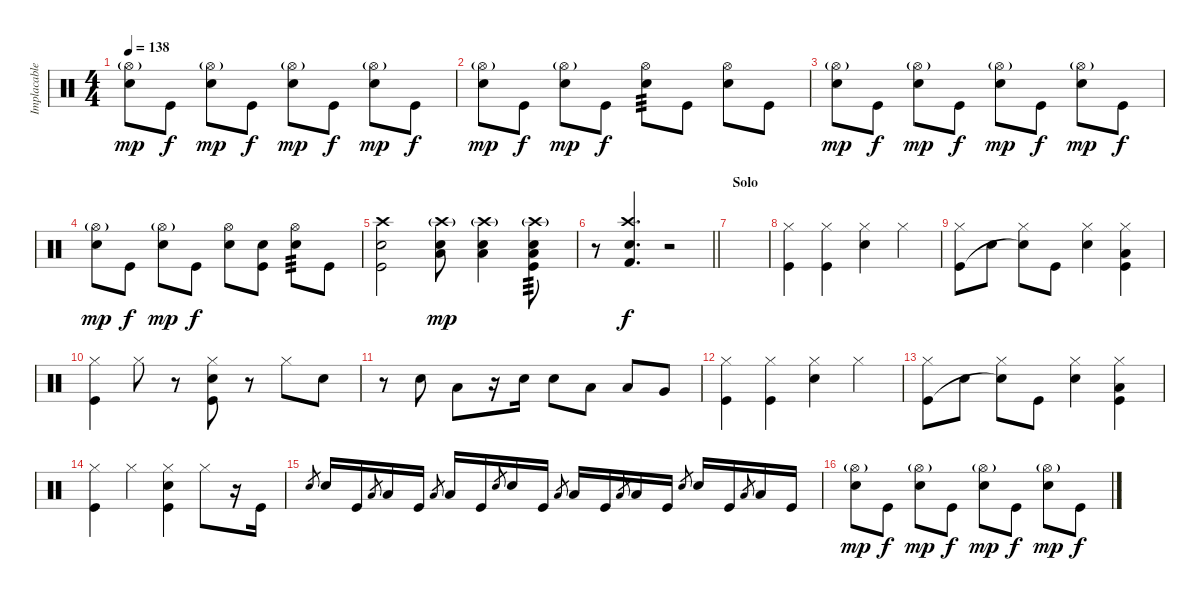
\track ("Implacable Gonzalez" "Implacable") {instrument percussion}
\staff {score}
\articulation defaults
\ts (4 4)
\tempo 138
\clef neutral
\ks c
("Hi-Hat (open)"{g} "Snare (hit) 2").8{dy mp} "Kick (hit)".8{dy f} ("Hi-Hat (open)"{g} "Snare (hit) 2").8{dy mp} "Kick (hit)".8{dy f} ("Hi-Hat (open)"{g} "Snare (hit) 2").8{dy mp} "Kick (hit)".8{dy f} ("Hi-Hat (open)"{g} "Snare (hit) 2").8{dy mp} "Kick (hit)".8{dy f} |
("Hi-Hat (open)"{g} "Snare (hit) 2").8{dy mp} "Kick (hit)".8{dy f} ("Hi-Hat (open)"{g} "Snare (hit) 2").8{dy mp} "Kick (hit)".8{dy f} ("Hi-Hat (open)" "Snare (hit) 2").8{tp 3} "Kick (hit)".8 ("Hi-Hat (open)" "Snare (hit) 2").8 "Kick (hit)".8 |
("Hi-Hat (open)"{g} "Snare (hit) 2").8{dy mp} "Kick (hit)".8{dy f} ("Hi-Hat (open)"{g} "Snare (hit) 2").8{dy mp} "Kick (hit)".8{dy f} ("Hi-Hat (open)"{g} "Snare (hit) 2").8{dy mp} "Kick (hit)".8{dy f} ("Hi-Hat (open)"{g} "Snare (hit) 2").8{dy mp} "Kick (hit)".8{dy f} |
("Hi-Hat (open)"{g} "Snare (hit) 2").8{dy mp} "Kick (hit)".8{dy f} ("Hi-Hat (open)"{g} "Snare (hit) 2").8{dy mp} "Kick (hit)".8{dy f} ("Hi-Hat (open)" "Snare (hit) 2").8 ("Snare (hit) 2" "Kick (hit)").8 ("Hi-Hat (open)" "Snare (hit) 2").8{tp 3} "Kick (hit)".8 |
("Crash high (hit)" "Snare (hit) 2" "Kick (hit)").2 ("Crash high (hit)"{g} "Snare (hit) 2" "Low Floor Tom (hit)").8{dy mp} ("Crash high (hit)"{g} "Snare (hit) 2" "Low Floor Tom (hit)").4 ("Crash high (hit)"{g} "Snare (hit) 2" "Low Tom (hit)" "Kick (hit)").8{tp 3} |
\barLineRight lightlight
r.8 ("Crash high (hit)" "Snare (hit) 2" "Kick (hit) 2").4{d dy f} r.2 |
\section ("" "Solo")
|
("Hi-Hat (closed)" "Kick (hit)").4 ("Hi-Hat (closed)" "Kick (hit)").4 ("Hi-Hat (closed)" "Snare (hit) 2").4 "Hi-Hat (closed)".4 |
("Hi-Hat (closed)" "Kick (hit)").8 "Snare (hit) 2".8 ("Hi-Hat (closed)" "Snare (hit)"{t}).8 "Kick (hit)".8 ("Hi-Hat (closed)" "Snare (hit) 2").4 ("Hi-Hat (closed)" "Low Floor Tom (hit)" "Kick (hit)").4 |
("Hi-Hat (closed)" "Kick (hit)").4 "Hi-Hat (closed)".8 r.8 ("Hi-Hat (closed)" "Snare (hit) 2" "Kick (hit)").8 r.8 "Hi-Hat (closed)".8 "Snare (hit) 2".8 |
r.8 "Snare (hit) 2".8 "Low Tom (hit)".8 r.16 "Snare (hit) 2".16 "Snare (hit) 2".8 "Low Tom (hit)".8 "Low Tom (hit)".8 "Very Low Tom (hit)".8 |
("Hi-Hat (closed)" "Kick (hit)").4 ("Hi-Hat (closed)" "Kick (hit)").4 ("Hi-Hat (closed)" "Snare (hit) 2").4 "Hi-Hat (closed)".4 |
("Hi-Hat (closed)" "Kick (hit)").8 "Snare (hit) 2".8 ("Hi-Hat (closed)" "Snare (hit)"{t}).8 "Kick (hit)".8 ("Hi-Hat (closed)" "Snare (hit) 2").4 ("Hi-Hat (closed)" "Low Floor Tom (hit)" "Kick (hit)").4 |
("Hi-Hat (closed)" "Kick (hit)").4 "Hi-Hat (closed)".4 ("Hi-Hat (closed)" "Snare (hit) 2" "Kick (hit)").4 "Hi-Hat (closed)".8 r.16 "Kick (hit)".16 |
"Snare (hit) 2".8{gr} "Snare (hit) 2".16 "Kick (hit)".16 "Low Tom (hit)".8{gr} "Low Tom (hit)".16 "Kick (hit)".16 "Low Tom (hit)".8{gr} "Low Tom (hit)".16 "Kick (hit)".16 "Snare (hit) 2".8{gr} "Snare (hit) 2".16 "Kick (hit)".16 "Low Tom (hit)".8{gr} "Low Tom (hit)".16 "Kick (hit)".16 "Low Tom (hit)".8{gr} "Low Tom (hit)".16 "Kick (hit)".16 "Snare (hit) 2".8{gr} "Snare (hit) 2".16 "Kick (hit)".16 "Low Tom (hit)".8{gr} "Low Tom (hit)".16 "Kick (hit)".16 |
("Hi-Hat (open)"{g} "Snare (hit) 2").8{dy mp} "Kick (hit)".8{dy f} ("Hi-Hat (open)"{g} "Snare (hit) 2").8{dy mp} "Kick (hit)".8{dy f} ("Hi-Hat (open)"{g} "Snare (hit) 2").8{dy mp} "Kick (hit)".8{dy f} ("Hi-Hat (open)"{g} "Snare (hit) 2").8{dy mp} "Kick (hit)".8{dy f}
